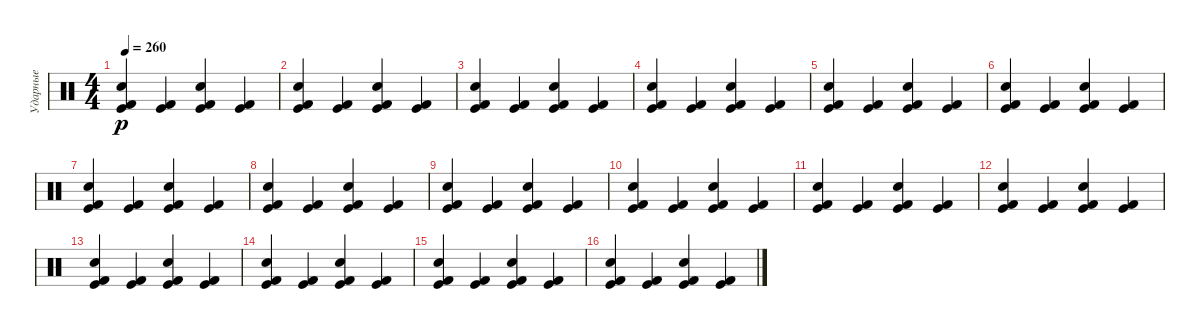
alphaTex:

\track ("Ударные" "Ударные") {instrument percussion}
\staff {score}
\articulation defaults
\ts (4 4)
\tempo 260
\clef neutral
\ks c
("Kick (hit) 2" "Kick (hit)" "Snare (hit) 2").4{dy p} ("Kick (hit)" "Kick (hit) 2").4 ("Kick (hit) 2" "Kick (hit)" "Snare (hit) 2").4 ("Kick (hit)" "Kick (hit) 2").4 |
("Kick (hit) 2" "Kick (hit)" "Snare (hit) 2").4 ("Kick (hit)" "Kick (hit) 2").4 ("Kick (hit) 2" "Kick (hit)" "Snare (hit) 2").4 ("Kick (hit)" "Kick (hit) 2").4 |
("Kick (hit) 2" "Kick (hit)" "Snare (hit) 2").4 ("Kick (hit)" "Kick (hit) 2").4 ("Kick (hit) 2" "Kick (hit)" "Snare (hit) 2").4 ("Kick (hit)" "Kick (hit) 2").4 |
("Kick (hit) 2" "Kick (hit)" "Snare (hit) 2").4 ("Kick (hit)" "Kick (hit) 2").4 ("Kick (hit) 2" "Kick (hit)" "Snare (hit) 2").4 ("Kick (hit)" "Kick (hit) 2").4 |
("Kick (hit) 2" "Kick (hit)" "Snare (hit) 2").4 ("Kick (hit)" "Kick (hit) 2").4 ("Kick (hit) 2" "Kick (hit)" "Snare (hit) 2").4 ("Kick (hit)" "Kick (hit) 2").4 |
("Kick (hit) 2" "Kick (hit)" "Snare (hit) 2").4 ("Kick (hit)" "Kick (hit) 2").4 ("Kick (hit) 2" "Kick (hit)" "Snare (hit) 2").4 ("Kick (hit)" "Kick (hit) 2").4 |
("Kick (hit) 2" "Kick (hit)" "Snare (hit) 2").4 ("Kick (hit)" "Kick (hit) 2").4 ("Kick (hit) 2" "Kick (hit)" "Snare (hit) 2").4 ("Kick (hit)" "Kick (hit) 2").4 |
("Kick (hit) 2" "Kick (hit)" "Snare (hit) 2").4 ("Kick (hit)" "Kick (hit) 2").4 ("Kick (hit) 2" "Kick (hit)" "Snare (hit) 2").4 ("Kick (hit)" "Kick (hit) 2").4 |
("Kick (hit) 2" "Kick (hit)" "Snare (hit) 2").4 ("Kick (hit)" "Kick (hit) 2").4 ("Kick (hit) 2" "Kick (hit)" "Snare (hit) 2").4 ("Kick (hit)" "Kick (hit) 2").4 |
("Kick (hit) 2" "Kick (hit)" "Snare (hit) 2").4 ("Kick (hit)" "Kick (hit) 2").4 ("Kick (hit) 2" "Kick (hit)" "Snare (hit) 2").4 ("Kick (hit)" "Kick (hit) 2").4 |
("Kick (hit) 2" "Kick (hit)" "Snare (hit) 2").4 ("Kick (hit)" "Kick (hit) 2").4 ("Kick (hit) 2" "Kick (hit)" "Snare (hit) 2").4 ("Kick (hit)" "Kick (hit) 2").4 |
("Kick (hit) 2" "Kick (hit)" "Snare (hit) 2").4 ("Kick (hit)" "Kick (hit) 2").4 ("Kick (hit) 2" "Kick (hit)" "Snare (hit) 2").4 ("Kick (hit)" "Kick (hit) 2").4 |
("Kick (hit) 2" "Kick (hit)" "Snare (hit) 2").4 ("Kick (hit)" "Kick (hit) 2").4 ("Kick (hit) 2" "Kick (hit)" "Snare (hit) 2").4 ("Kick (hit)" "Kick (hit) 2").4 |
("Kick (hit) 2" "Kick (hit)" "Snare (hit) 2").4 ("Kick (hit)" "Kick (hit) 2").4 ("Kick (hit) 2" "Kick (hit)" "Snare (hit) 2").4 ("Kick (hit)" "Kick (hit) 2").4 |
("Kick (hit) 2" "Kick (hit)" "Snare (hit) 2").4 ("Kick (hit)" "Kick (hit) 2").4 ("Kick (hit) 2" "Kick (hit)" "Snare (hit) 2").4 ("Kick (hit)" "Kick (hit) 2").4 |
("Kick (hit) 2" "Kick (hit)" "Snare (hit) 2").4 ("Kick (hit)" "Kick (hit) 2").4 ("Kick (hit) 2" "Kick (hit)" "Snare (hit) 2").4 ("Kick (hit)" "Kick (hit) 2").4
